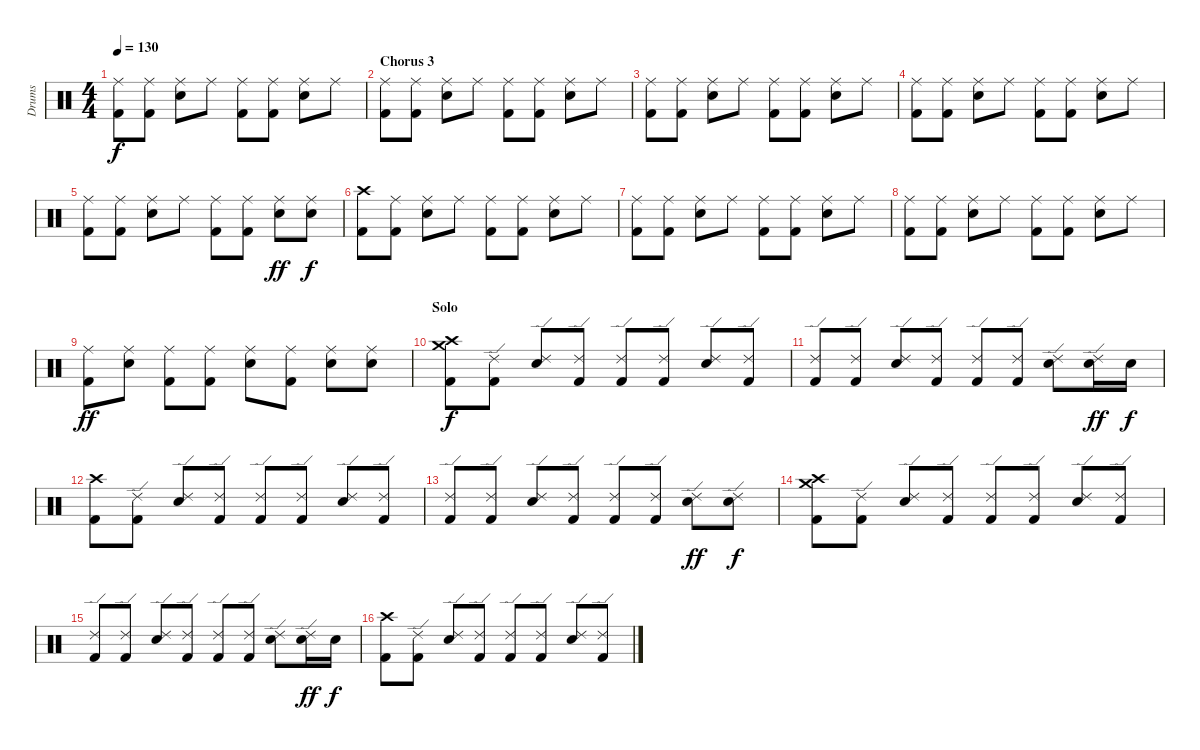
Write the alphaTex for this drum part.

\track ("Drums" "Drums") {instrument percussion}
\staff {score}
\articulation defaults
\ts (4 4)
\tempo 130
\clef neutral
\ks c
("Ride (middle)" "Kick (hit) 2").8{dy f} ("Ride (middle)" "Kick (hit) 2").8 ("Ride (middle)" "Electric Snare (hit)").8 "Ride (middle)".8 ("Ride (middle)" "Kick (hit) 2").8 ("Ride (middle)" "Kick (hit) 2").8 ("Ride (middle)" "Electric Snare (hit)").8 "Ride (middle)".8 |
\section ("" "Chorus 3")
("Ride (middle)" "Kick (hit) 2").8 ("Ride (middle)" "Kick (hit) 2").8 ("Ride (middle)" "Electric Snare (hit)").8 "Ride (middle)".8 ("Ride (middle)" "Kick (hit) 2").8 ("Ride (middle)" "Kick (hit) 2").8 ("Ride (middle)" "Electric Snare (hit)").8 "Ride (middle)".8 |
("Ride (middle)" "Kick (hit) 2").8 ("Ride (middle)" "Kick (hit) 2").8 ("Ride (middle)" "Electric Snare (hit)").8 "Ride (middle)".8 ("Ride (middle)" "Kick (hit) 2").8 ("Ride (middle)" "Kick (hit) 2").8 ("Ride (middle)" "Electric Snare (hit)").8 "Ride (middle)".8 |
("Ride (middle)" "Kick (hit) 2").8 ("Ride (middle)" "Kick (hit) 2").8 ("Ride (middle)" "Electric Snare (hit)").8 "Ride (middle)".8 ("Ride (middle)" "Kick (hit) 2").8 ("Ride (middle)" "Kick (hit) 2").8 ("Ride (middle)" "Electric Snare (hit)").8 "Ride (middle)".8 |
("Ride (middle)" "Kick (hit) 2").8 ("Ride (middle)" "Kick (hit) 2").8 ("Ride (middle)" "Electric Snare (hit)").8 "Ride (middle)".8 ("Ride (middle)" "Kick (hit) 2").8 ("Ride (middle)" "Kick (hit) 2").8 ("Ride (middle)" "Electric Snare (hit)").8{dy ff} ("Ride (middle)" "Electric Snare (hit)").8{dy f} |
("Crash high (hit)" "Kick (hit) 2").8 ("Ride (middle)" "Kick (hit) 2").8 ("Ride (middle)" "Electric Snare (hit)").8 "Ride (middle)".8 ("Ride (middle)" "Kick (hit) 2").8 ("Ride (middle)" "Kick (hit) 2").8 ("Ride (middle)" "Electric Snare (hit)").8 "Ride (middle)".8 |
("Ride (middle)" "Kick (hit) 2").8 ("Ride (middle)" "Kick (hit) 2").8 ("Ride (middle)" "Electric Snare (hit)").8 "Ride (middle)".8 ("Ride (middle)" "Kick (hit) 2").8 ("Ride (middle)" "Kick (hit) 2").8 ("Ride (middle)" "Electric Snare (hit)").8 "Ride (middle)".8 |
("Ride (middle)" "Kick (hit) 2").8 ("Ride (middle)" "Kick (hit) 2").8 ("Ride (middle)" "Electric Snare (hit)").8 "Ride (middle)".8 ("Ride (middle)" "Kick (hit) 2").8 ("Ride (middle)" "Kick (hit) 2").8 ("Ride (middle)" "Electric Snare (hit)").8 "Ride (middle)".8 |
("Ride (middle)" "Kick (hit) 2").8{dy ff} ("Ride (middle)" "Electric Snare (hit)").8 ("Ride (middle)" "Kick (hit) 2").8 ("Ride (middle)" "Kick (hit) 2").8 ("Ride (middle)" "Electric Snare (hit)").8 ("Ride (middle)" "Kick (hit) 2").8 ("Ride (middle)" "Electric Snare (hit)").8 ("Ride (middle)" "Electric Snare (hit)").8 |
\section ("" "Solo")
("Crash medium (hit)" "Crash high (hit)" "Kick (hit) 2").8{dy f} ("Ride (edge) 2" "Kick (hit) 2").8 ("Ride (edge) 2" "Electric Snare (hit)").8 ("Ride (edge) 2" "Kick (hit) 2").8 ("Ride (edge) 2" "Kick (hit) 2").8 ("Ride (edge) 2" "Kick (hit) 2").8 ("Ride (edge) 2" "Electric Snare (hit)").8 ("Ride (edge) 2" "Kick (hit) 2").8 |
("Ride (edge) 2" "Kick (hit) 2").8 ("Ride (edge) 2" "Kick (hit) 2").8 ("Ride (edge) 2" "Electric Snare (hit)").8 ("Ride (edge) 2" "Kick (hit) 2").8 ("Ride (edge) 2" "Kick (hit) 2").8 ("Ride (edge) 2" "Kick (hit) 2").8 ("Ride (edge) 2" "Electric Snare (hit)").8 ("Ride (edge) 2" "Electric Snare (hit)").16{dy ff} "Electric Snare (hit)".16{dy f} |
("Crash high (hit)" "Kick (hit) 2").8 ("Ride (edge) 2" "Kick (hit) 2").8 ("Ride (edge) 2" "Electric Snare (hit)").8 ("Ride (edge) 2" "Kick (hit) 2").8 ("Ride (edge) 2" "Kick (hit) 2").8 ("Ride (edge) 2" "Kick (hit) 2").8 ("Ride (edge) 2" "Electric Snare (hit)").8 ("Ride (edge) 2" "Kick (hit) 2").8 |
("Ride (edge) 2" "Kick (hit) 2").8 ("Ride (edge) 2" "Kick (hit) 2").8 ("Ride (edge) 2" "Electric Snare (hit)").8 ("Ride (edge) 2" "Kick (hit) 2").8 ("Ride (edge) 2" "Kick (hit) 2").8 ("Ride (edge) 2" "Kick (hit) 2").8 ("Ride (edge) 2" "Electric Snare (hit)").8{dy ff} ("Ride (edge) 2" "Electric Snare (hit)").8{dy f} |
("Crash medium (hit)" "Crash high (hit)" "Kick (hit) 2").8 ("Ride (edge) 2" "Kick (hit) 2").8 ("Ride (edge) 2" "Electric Snare (hit)").8 ("Ride (edge) 2" "Kick (hit) 2").8 ("Ride (edge) 2" "Kick (hit) 2").8 ("Ride (edge) 2" "Kick (hit) 2").8 ("Ride (edge) 2" "Electric Snare (hit)").8 ("Ride (edge) 2" "Kick (hit) 2").8 |
("Ride (edge) 2" "Kick (hit) 2").8 ("Ride (edge) 2" "Kick (hit) 2").8 ("Ride (edge) 2" "Electric Snare (hit)").8 ("Ride (edge) 2" "Kick (hit) 2").8 ("Ride (edge) 2" "Kick (hit) 2").8 ("Ride (edge) 2" "Kick (hit) 2").8 ("Ride (edge) 2" "Electric Snare (hit)").8 ("Ride (edge) 2" "Electric Snare (hit)").16{dy ff} "Electric Snare (hit)".16{dy f} |
("Crash high (hit)" "Kick (hit) 2").8 ("Ride (edge) 2" "Kick (hit) 2").8 ("Ride (edge) 2" "Electric Snare (hit)").8 ("Ride (edge) 2" "Kick (hit) 2").8 ("Ride (edge) 2" "Kick (hit) 2").8 ("Ride (edge) 2" "Kick (hit) 2").8 ("Ride (edge) 2" "Electric Snare (hit)").8 ("Ride (edge) 2" "Kick (hit) 2").8
